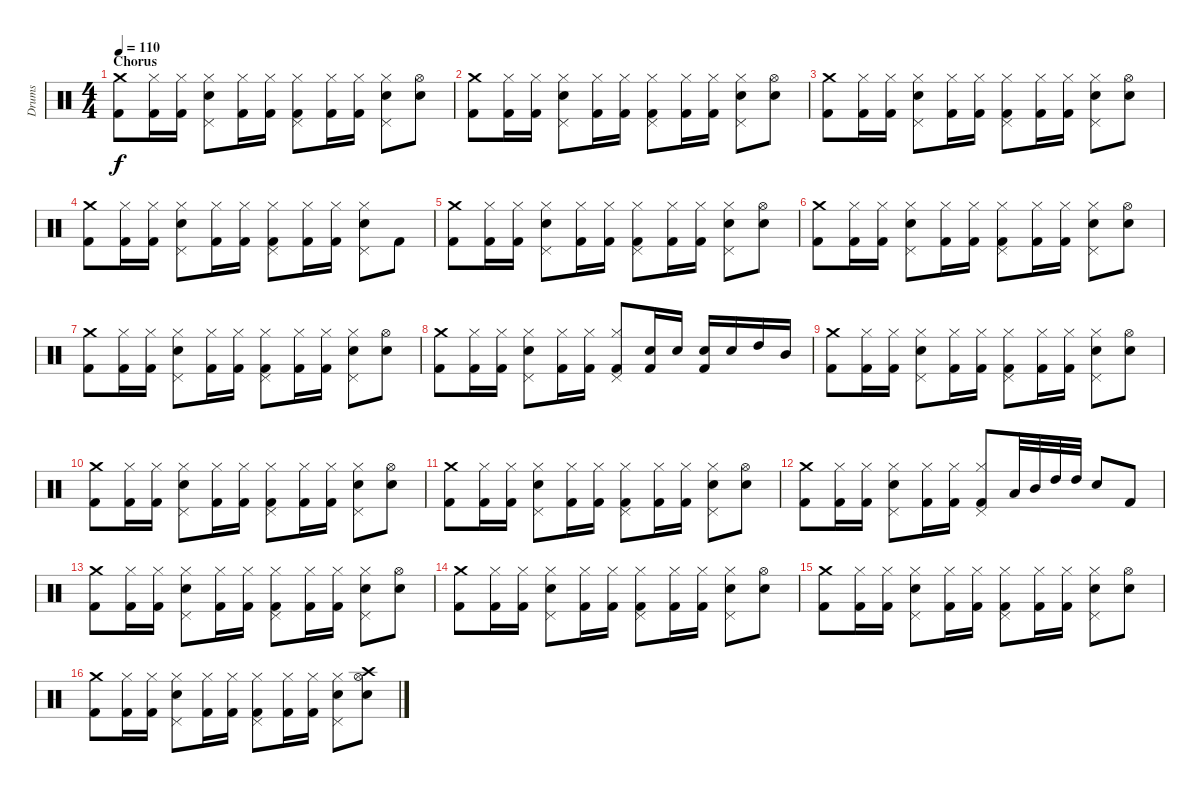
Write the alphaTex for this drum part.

\track ("Drums" "Drums") {instrument percussion}
\staff {score}
\articulation defaults
\ts (4 4)
\section ("" "Chorus")
\tempo 110
\clef neutral
\ks c
("Crash medium (hit)" "Kick (hit) 2").8{dy f} ("Kick (hit) 2" "Hi-Hat (closed)").16 ("Kick (hit) 2" "Hi-Hat (closed)").16 ("Snare (hit) 2" "Pedal Hi-Hat (hit)" "Hi-Hat (closed)").8 ("Kick (hit) 2" "Hi-Hat (closed)").16 ("Kick (hit) 2" "Hi-Hat (closed)").16 ("Kick (hit) 2" "Pedal Hi-Hat (hit)" "Hi-Hat (closed)").8 ("Kick (hit) 2" "Hi-Hat (closed)").16 ("Kick (hit) 2" "Hi-Hat (closed)").16 ("Snare (hit) 2" "Pedal Hi-Hat (hit)" "Hi-Hat (closed)").8 ("Snare (hit) 2" "Hi-Hat (open)").8 |
("Crash medium (hit)" "Kick (hit) 2").8 ("Kick (hit) 2" "Hi-Hat (closed)").16 ("Kick (hit) 2" "Hi-Hat (closed)").16 ("Snare (hit) 2" "Pedal Hi-Hat (hit)" "Hi-Hat (closed)").8 ("Kick (hit) 2" "Hi-Hat (closed)").16 ("Kick (hit) 2" "Hi-Hat (closed)").16 ("Kick (hit) 2" "Pedal Hi-Hat (hit)" "Hi-Hat (closed)").8 ("Kick (hit) 2" "Hi-Hat (closed)").16 ("Kick (hit) 2" "Hi-Hat (closed)").16 ("Snare (hit) 2" "Pedal Hi-Hat (hit)" "Hi-Hat (closed)").8 ("Snare (hit) 2" "Hi-Hat (open)").8 |
("Crash medium (hit)" "Kick (hit) 2").8 ("Kick (hit) 2" "Hi-Hat (closed)").16 ("Kick (hit) 2" "Hi-Hat (closed)").16 ("Snare (hit) 2" "Pedal Hi-Hat (hit)" "Hi-Hat (closed)").8 ("Kick (hit) 2" "Hi-Hat (closed)").16 ("Kick (hit) 2" "Hi-Hat (closed)").16 ("Kick (hit) 2" "Pedal Hi-Hat (hit)" "Hi-Hat (closed)").8 ("Kick (hit) 2" "Hi-Hat (closed)").16 ("Kick (hit) 2" "Hi-Hat (closed)").16 ("Snare (hit) 2" "Pedal Hi-Hat (hit)" "Hi-Hat (closed)").8 ("Snare (hit) 2" "Hi-Hat (open)").8 |
("Crash medium (hit)" "Kick (hit) 2").8 ("Kick (hit) 2" "Hi-Hat (closed)").16 ("Kick (hit) 2" "Hi-Hat (closed)").16 ("Snare (hit) 2" "Pedal Hi-Hat (hit)" "Hi-Hat (closed)").8 ("Kick (hit) 2" "Hi-Hat (closed)").16 ("Kick (hit) 2" "Hi-Hat (closed)").16 ("Kick (hit) 2" "Pedal Hi-Hat (hit)" "Hi-Hat (closed)").8 ("Kick (hit) 2" "Hi-Hat (closed)").16 ("Kick (hit) 2" "Hi-Hat (closed)").16 ("Snare (hit) 2" "Pedal Hi-Hat (hit)" "Hi-Hat (closed)").8 "Kick (hit) 2".8 |
("Crash medium (hit)" "Kick (hit) 2").8 ("Kick (hit) 2" "Hi-Hat (closed)").16 ("Kick (hit) 2" "Hi-Hat (closed)").16 ("Snare (hit) 2" "Pedal Hi-Hat (hit)" "Hi-Hat (closed)").8 ("Kick (hit) 2" "Hi-Hat (closed)").16 ("Kick (hit) 2" "Hi-Hat (closed)").16 ("Kick (hit) 2" "Pedal Hi-Hat (hit)" "Hi-Hat (closed)").8 ("Kick (hit) 2" "Hi-Hat (closed)").16 ("Kick (hit) 2" "Hi-Hat (closed)").16 ("Snare (hit) 2" "Pedal Hi-Hat (hit)" "Hi-Hat (closed)").8 ("Snare (hit) 2" "Hi-Hat (open)").8 |
("Crash medium (hit)" "Kick (hit) 2").8 ("Kick (hit) 2" "Hi-Hat (closed)").16 ("Kick (hit) 2" "Hi-Hat (closed)").16 ("Snare (hit) 2" "Pedal Hi-Hat (hit)" "Hi-Hat (closed)").8 ("Kick (hit) 2" "Hi-Hat (closed)").16 ("Kick (hit) 2" "Hi-Hat (closed)").16 ("Kick (hit) 2" "Pedal Hi-Hat (hit)" "Hi-Hat (closed)").8 ("Kick (hit) 2" "Hi-Hat (closed)").16 ("Kick (hit) 2" "Hi-Hat (closed)").16 ("Snare (hit) 2" "Pedal Hi-Hat (hit)" "Hi-Hat (closed)").8 ("Snare (hit) 2" "Hi-Hat (open)").8 |
("Crash medium (hit)" "Kick (hit) 2").8 ("Kick (hit) 2" "Hi-Hat (closed)").16 ("Kick (hit) 2" "Hi-Hat (closed)").16 ("Snare (hit) 2" "Pedal Hi-Hat (hit)" "Hi-Hat (closed)").8 ("Kick (hit) 2" "Hi-Hat (closed)").16 ("Kick (hit) 2" "Hi-Hat (closed)").16 ("Kick (hit) 2" "Pedal Hi-Hat (hit)" "Hi-Hat (closed)").8 ("Kick (hit) 2" "Hi-Hat (closed)").16 ("Kick (hit) 2" "Hi-Hat (closed)").16 ("Snare (hit) 2" "Pedal Hi-Hat (hit)" "Hi-Hat (closed)").8 ("Snare (hit) 2" "Hi-Hat (open)").8 |
("Crash medium (hit)" "Kick (hit) 2").8 ("Kick (hit) 2" "Hi-Hat (closed)").16 ("Kick (hit) 2" "Hi-Hat (closed)").16 ("Snare (hit) 2" "Pedal Hi-Hat (hit)" "Hi-Hat (closed)").8 ("Kick (hit) 2" "Hi-Hat (closed)").16 ("Kick (hit) 2" "Hi-Hat (closed)").16 ("Kick (hit) 2" "Pedal Hi-Hat (hit)" "Hi-Hat (closed)").8 ("Snare (hit) 2" "Kick (hit) 2").16 "Snare (hit) 2".16 ("Snare (hit) 2" "Kick (hit) 2").16 "Snare (hit) 2".16 "High Tom (hit)".16 "Mid Tom (hit)".16 |
("Crash medium (hit)" "Kick (hit) 2").8 ("Kick (hit) 2" "Hi-Hat (closed)").16 ("Kick (hit) 2" "Hi-Hat (closed)").16 ("Snare (hit) 2" "Pedal Hi-Hat (hit)" "Hi-Hat (closed)").8 ("Kick (hit) 2" "Hi-Hat (closed)").16 ("Kick (hit) 2" "Hi-Hat (closed)").16 ("Kick (hit) 2" "Pedal Hi-Hat (hit)" "Hi-Hat (closed)").8 ("Kick (hit) 2" "Hi-Hat (closed)").16 ("Kick (hit) 2" "Hi-Hat (closed)").16 ("Snare (hit) 2" "Pedal Hi-Hat (hit)" "Hi-Hat (closed)").8 ("Snare (hit) 2" "Hi-Hat (open)").8 |
("Crash medium (hit)" "Kick (hit) 2").8 ("Kick (hit) 2" "Hi-Hat (closed)").16 ("Kick (hit) 2" "Hi-Hat (closed)").16 ("Snare (hit) 2" "Pedal Hi-Hat (hit)" "Hi-Hat (closed)").8 ("Kick (hit) 2" "Hi-Hat (closed)").16 ("Kick (hit) 2" "Hi-Hat (closed)").16 ("Kick (hit) 2" "Pedal Hi-Hat (hit)" "Hi-Hat (closed)").8 ("Kick (hit) 2" "Hi-Hat (closed)").16 ("Kick (hit) 2" "Hi-Hat (closed)").16 ("Snare (hit) 2" "Pedal Hi-Hat (hit)" "Hi-Hat (closed)").8 ("Snare (hit) 2" "Hi-Hat (open)").8 |
("Crash medium (hit)" "Kick (hit) 2").8 ("Kick (hit) 2" "Hi-Hat (closed)").16 ("Kick (hit) 2" "Hi-Hat (closed)").16 ("Snare (hit) 2" "Pedal Hi-Hat (hit)" "Hi-Hat (closed)").8 ("Kick (hit) 2" "Hi-Hat (closed)").16 ("Kick (hit) 2" "Hi-Hat (closed)").16 ("Kick (hit) 2" "Pedal Hi-Hat (hit)" "Hi-Hat (closed)").8 ("Kick (hit) 2" "Hi-Hat (closed)").16 ("Kick (hit) 2" "Hi-Hat (closed)").16 ("Snare (hit) 2" "Pedal Hi-Hat (hit)" "Hi-Hat (closed)").8 ("Snare (hit) 2" "Hi-Hat (open)").8 |
("Crash medium (hit)" "Kick (hit) 2").8 ("Kick (hit) 2" "Hi-Hat (closed)").16 ("Kick (hit) 2" "Hi-Hat (closed)").16 ("Snare (hit) 2" "Pedal Hi-Hat (hit)" "Hi-Hat (closed)").8 ("Kick (hit) 2" "Hi-Hat (closed)").16 ("Kick (hit) 2" "Hi-Hat (closed)").16 ("Kick (hit) 2" "Pedal Hi-Hat (hit)" "Hi-Hat (closed)").8 "Low Tom (hit)".32 "Mid Tom (hit)".32 "High Tom (hit)".32 "High Tom (hit)".32 "Snare (hit) 2".8 "Kick (hit) 2".8 |
("Crash medium (hit)" "Kick (hit) 2").8 ("Kick (hit) 2" "Hi-Hat (closed)").16 ("Kick (hit) 2" "Hi-Hat (closed)").16 ("Snare (hit) 2" "Pedal Hi-Hat (hit)" "Hi-Hat (closed)").8 ("Kick (hit) 2" "Hi-Hat (closed)").16 ("Kick (hit) 2" "Hi-Hat (closed)").16 ("Kick (hit) 2" "Pedal Hi-Hat (hit)" "Hi-Hat (closed)").8 ("Kick (hit) 2" "Hi-Hat (closed)").16 ("Kick (hit) 2" "Hi-Hat (closed)").16 ("Snare (hit) 2" "Pedal Hi-Hat (hit)" "Hi-Hat (closed)").8 ("Snare (hit) 2" "Hi-Hat (open)").8 |
("Crash medium (hit)" "Kick (hit) 2").8 ("Kick (hit) 2" "Hi-Hat (closed)").16 ("Kick (hit) 2" "Hi-Hat (closed)").16 ("Snare (hit) 2" "Pedal Hi-Hat (hit)" "Hi-Hat (closed)").8 ("Kick (hit) 2" "Hi-Hat (closed)").16 ("Kick (hit) 2" "Hi-Hat (closed)").16 ("Kick (hit) 2" "Pedal Hi-Hat (hit)" "Hi-Hat (closed)").8 ("Kick (hit) 2" "Hi-Hat (closed)").16 ("Kick (hit) 2" "Hi-Hat (closed)").16 ("Snare (hit) 2" "Pedal Hi-Hat (hit)" "Hi-Hat (closed)").8 ("Snare (hit) 2" "Hi-Hat (open)").8 |
("Crash medium (hit)" "Kick (hit) 2").8 ("Kick (hit) 2" "Hi-Hat (closed)").16 ("Kick (hit) 2" "Hi-Hat (closed)").16 ("Snare (hit) 2" "Pedal Hi-Hat (hit)" "Hi-Hat (closed)").8 ("Kick (hit) 2" "Hi-Hat (closed)").16 ("Kick (hit) 2" "Hi-Hat (closed)").16 ("Kick (hit) 2" "Pedal Hi-Hat (hit)" "Hi-Hat (closed)").8 ("Kick (hit) 2" "Hi-Hat (closed)").16 ("Kick (hit) 2" "Hi-Hat (closed)").16 ("Snare (hit) 2" "Pedal Hi-Hat (hit)" "Hi-Hat (closed)").8 ("Snare (hit) 2" "Hi-Hat (open)").8 |
("Crash medium (hit)" "Kick (hit) 2").8 ("Kick (hit) 2" "Hi-Hat (closed)").16 ("Kick (hit) 2" "Hi-Hat (closed)").16 ("Snare (hit) 2" "Pedal Hi-Hat (hit)" "Hi-Hat (closed)").8 ("Kick (hit) 2" "Hi-Hat (closed)").16 ("Kick (hit) 2" "Hi-Hat (closed)").16 ("Kick (hit) 2" "Pedal Hi-Hat (hit)" "Hi-Hat (closed)").8 ("Kick (hit) 2" "Hi-Hat (closed)").16 ("Kick (hit) 2" "Hi-Hat (closed)").16 ("Snare (hit) 2" "Pedal Hi-Hat (hit)" "Hi-Hat (closed)").8 ("Crash high (hit)" "Snare (hit) 2" "Hi-Hat (open)").8
